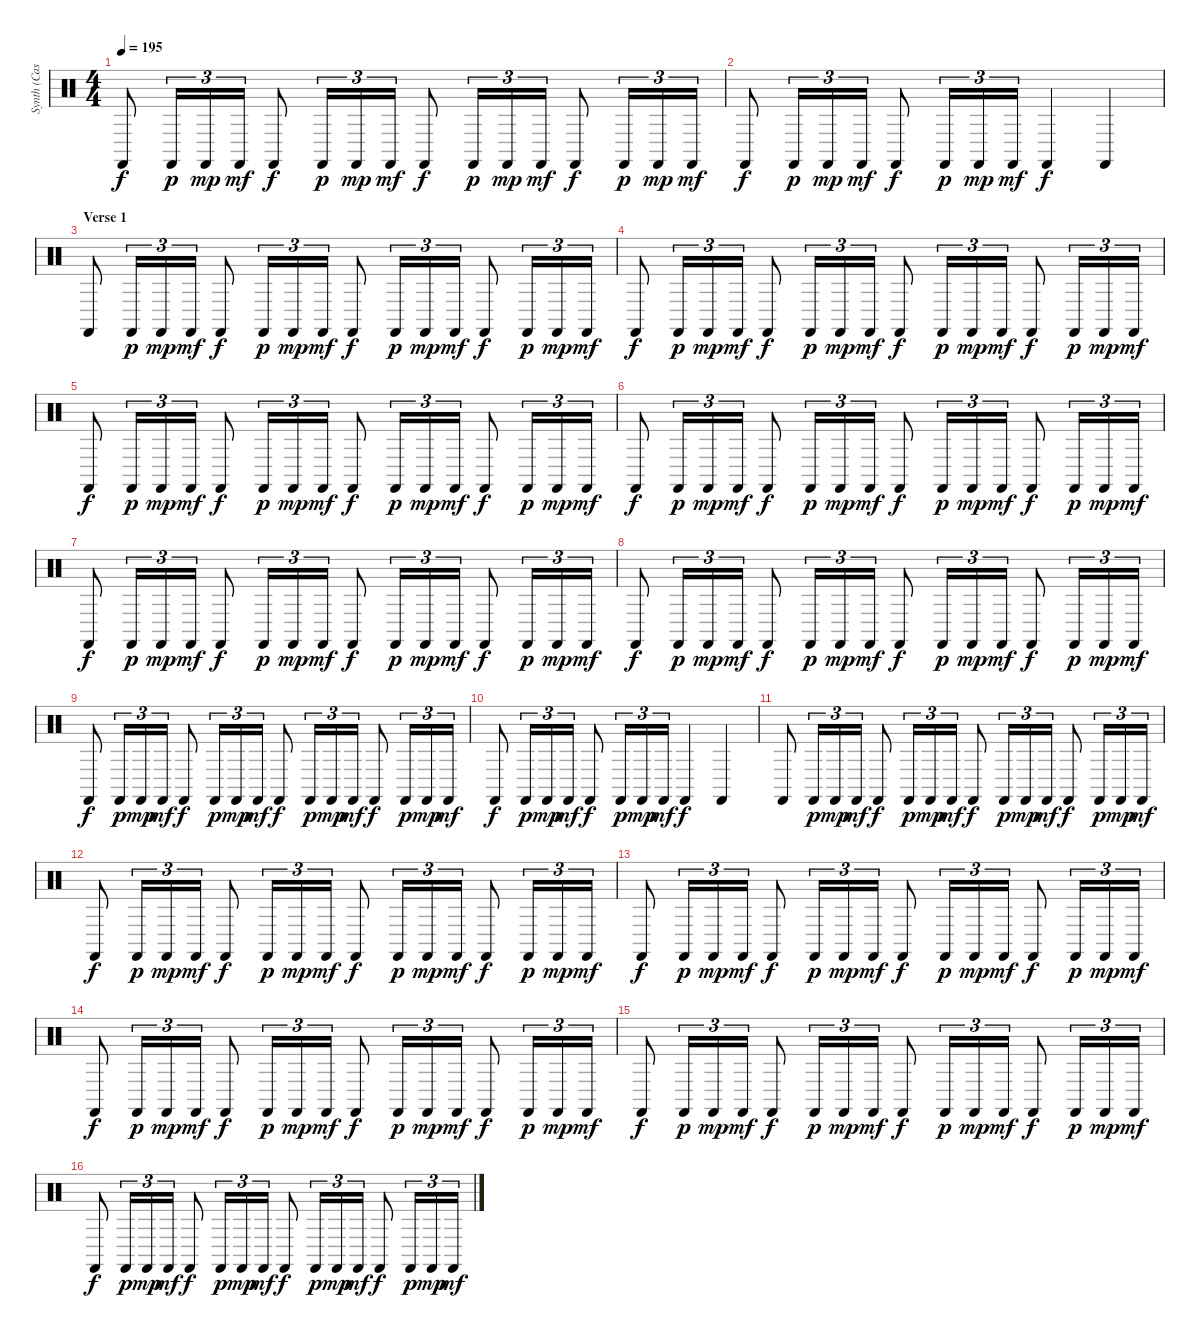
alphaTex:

\track ("Synth (Castinets)" "Synth (Cas") {instrument percussion}
\staff {score}
\articulation defaults
\ts (4 4)
\tempo 195
\clef neutral
\ks c "Castanets (hit)".8{dy f} "Castanets (hit)".16{tu (3 2) dy p} "Castanets (hit)".16{tu (3 2) dy mp} "Castanets (hit)".16{tu (3 2) dy mf} "Castanets (hit)".8{dy f} "Castanets (hit)".16{tu (3 2) dy p} "Castanets (hit)".16{tu (3 2) dy mp} "Castanets (hit)".16{tu (3 2) dy mf} "Castanets (hit)".8{dy f} "Castanets (hit)".16{tu (3 2) dy p} "Castanets (hit)".16{tu (3 2) dy mp} "Castanets (hit)".16{tu (3 2) dy mf} "Castanets (hit)".8{dy f} "Castanets (hit)".16{tu (3 2) dy p} "Castanets (hit)".16{tu (3 2) dy mp} "Castanets (hit)".16{tu (3 2) dy mf}
|
"Castanets (hit)".8{dy f} "Castanets (hit)".16{tu (3 2) dy p} "Castanets (hit)".16{tu (3 2) dy mp} "Castanets (hit)".16{tu (3 2) dy mf} "Castanets (hit)".8{dy f} "Castanets (hit)".16{tu (3 2) dy p} "Castanets (hit)".16{tu (3 2) dy mp} "Castanets (hit)".16{tu (3 2) dy mf} "Castanets (hit)".4{dy f} "Castanets (hit)".4 |
\section ("" "Verse 1")
"Castanets (hit)".8 "Castanets (hit)".16{tu (3 2) dy p} "Castanets (hit)".16{tu (3 2) dy mp} "Castanets (hit)".16{tu (3 2) dy mf} "Castanets (hit)".8{dy f} "Castanets (hit)".16{tu (3 2) dy p} "Castanets (hit)".16{tu (3 2) dy mp} "Castanets (hit)".16{tu (3 2) dy mf} "Castanets (hit)".8{dy f} "Castanets (hit)".16{tu (3 2) dy p} "Castanets (hit)".16{tu (3 2) dy mp} "Castanets (hit)".16{tu (3 2) dy mf} "Castanets (hit)".8{dy f} "Castanets (hit)".16{tu (3 2) dy p} "Castanets (hit)".16{tu (3 2) dy mp} "Castanets (hit)".16{tu (3 2) dy mf} |
"Castanets (hit)".8{dy f} "Castanets (hit)".16{tu (3 2) dy p} "Castanets (hit)".16{tu (3 2) dy mp} "Castanets (hit)".16{tu (3 2) dy mf} "Castanets (hit)".8{dy f} "Castanets (hit)".16{tu (3 2) dy p} "Castanets (hit)".16{tu (3 2) dy mp} "Castanets (hit)".16{tu (3 2) dy mf} "Castanets (hit)".8{dy f} "Castanets (hit)".16{tu (3 2) dy p} "Castanets (hit)".16{tu (3 2) dy mp} "Castanets (hit)".16{tu (3 2) dy mf} "Castanets (hit)".8{dy f} "Castanets (hit)".16{tu (3 2) dy p} "Castanets (hit)".16{tu (3 2) dy mp} "Castanets (hit)".16{tu (3 2) dy mf} |
"Castanets (hit)".8{dy f} "Castanets (hit)".16{tu (3 2) dy p} "Castanets (hit)".16{tu (3 2) dy mp} "Castanets (hit)".16{tu (3 2) dy mf} "Castanets (hit)".8{dy f} "Castanets (hit)".16{tu (3 2) dy p} "Castanets (hit)".16{tu (3 2) dy mp} "Castanets (hit)".16{tu (3 2) dy mf} "Castanets (hit)".8{dy f} "Castanets (hit)".16{tu (3 2) dy p} "Castanets (hit)".16{tu (3 2) dy mp} "Castanets (hit)".16{tu (3 2) dy mf} "Castanets (hit)".8{dy f} "Castanets (hit)".16{tu (3 2) dy p} "Castanets (hit)".16{tu (3 2) dy mp} "Castanets (hit)".16{tu (3 2) dy mf} |
"Castanets (hit)".8{dy f} "Castanets (hit)".16{tu (3 2) dy p} "Castanets (hit)".16{tu (3 2) dy mp} "Castanets (hit)".16{tu (3 2) dy mf} "Castanets (hit)".8{dy f} "Castanets (hit)".16{tu (3 2) dy p} "Castanets (hit)".16{tu (3 2) dy mp} "Castanets (hit)".16{tu (3 2) dy mf} "Castanets (hit)".8{dy f} "Castanets (hit)".16{tu (3 2) dy p} "Castanets (hit)".16{tu (3 2) dy mp} "Castanets (hit)".16{tu (3 2) dy mf} "Castanets (hit)".8{dy f} "Castanets (hit)".16{tu (3 2) dy p} "Castanets (hit)".16{tu (3 2) dy mp} "Castanets (hit)".16{tu (3 2) dy mf} |
"Castanets (hit)".8{dy f} "Castanets (hit)".16{tu (3 2) dy p} "Castanets (hit)".16{tu (3 2) dy mp} "Castanets (hit)".16{tu (3 2) dy mf} "Castanets (hit)".8{dy f} "Castanets (hit)".16{tu (3 2) dy p} "Castanets (hit)".16{tu (3 2) dy mp} "Castanets (hit)".16{tu (3 2) dy mf} "Castanets (hit)".8{dy f} "Castanets (hit)".16{tu (3 2) dy p} "Castanets (hit)".16{tu (3 2) dy mp} "Castanets (hit)".16{tu (3 2) dy mf} "Castanets (hit)".8{dy f} "Castanets (hit)".16{tu (3 2) dy p} "Castanets (hit)".16{tu (3 2) dy mp} "Castanets (hit)".16{tu (3 2) dy mf} |
"Castanets (hit)".8{dy f} "Castanets (hit)".16{tu (3 2) dy p} "Castanets (hit)".16{tu (3 2) dy mp} "Castanets (hit)".16{tu (3 2) dy mf} "Castanets (hit)".8{dy f} "Castanets (hit)".16{tu (3 2) dy p} "Castanets (hit)".16{tu (3 2) dy mp} "Castanets (hit)".16{tu (3 2) dy mf} "Castanets (hit)".8{dy f} "Castanets (hit)".16{tu (3 2) dy p} "Castanets (hit)".16{tu (3 2) dy mp} "Castanets (hit)".16{tu (3 2) dy mf} "Castanets (hit)".8{dy f} "Castanets (hit)".16{tu (3 2) dy p} "Castanets (hit)".16{tu (3 2) dy mp} "Castanets (hit)".16{tu (3 2) dy mf} |
"Castanets (hit)".8{dy f} "Castanets (hit)".16{tu (3 2) dy p} "Castanets (hit)".16{tu (3 2) dy mp} "Castanets (hit)".16{tu (3 2) dy mf} "Castanets (hit)".8{dy f} "Castanets (hit)".16{tu (3 2) dy p} "Castanets (hit)".16{tu (3 2) dy mp} "Castanets (hit)".16{tu (3 2) dy mf} "Castanets (hit)".8{dy f} "Castanets (hit)".16{tu (3 2) dy p} "Castanets (hit)".16{tu (3 2) dy mp} "Castanets (hit)".16{tu (3 2) dy mf} "Castanets (hit)".8{dy f} "Castanets (hit)".16{tu (3 2) dy p} "Castanets (hit)".16{tu (3 2) dy mp} "Castanets (hit)".16{tu (3 2) dy mf} |
"Castanets (hit)".8{dy f} "Castanets (hit)".16{tu (3 2) dy p} "Castanets (hit)".16{tu (3 2) dy mp} "Castanets (hit)".16{tu (3 2) dy mf} "Castanets (hit)".8{dy f} "Castanets (hit)".16{tu (3 2) dy p} "Castanets (hit)".16{tu (3 2) dy mp} "Castanets (hit)".16{tu (3 2) dy mf} "Castanets (hit)".4{dy f} "Castanets (hit)".4 |
"Castanets (hit)".8 "Castanets (hit)".16{tu (3 2) dy p} "Castanets (hit)".16{tu (3 2) dy mp} "Castanets (hit)".16{tu (3 2) dy mf} "Castanets (hit)".8{dy f} "Castanets (hit)".16{tu (3 2) dy p} "Castanets (hit)".16{tu (3 2) dy mp} "Castanets (hit)".16{tu (3 2) dy mf} "Castanets (hit)".8{dy f} "Castanets (hit)".16{tu (3 2) dy p} "Castanets (hit)".16{tu (3 2) dy mp} "Castanets (hit)".16{tu (3 2) dy mf} "Castanets (hit)".8{dy f} "Castanets (hit)".16{tu (3 2) dy p} "Castanets (hit)".16{tu (3 2) dy mp} "Castanets (hit)".16{tu (3 2) dy mf} |
"Castanets (hit)".8{dy f} "Castanets (hit)".16{tu (3 2) dy p} "Castanets (hit)".16{tu (3 2) dy mp} "Castanets (hit)".16{tu (3 2) dy mf} "Castanets (hit)".8{dy f} "Castanets (hit)".16{tu (3 2) dy p} "Castanets (hit)".16{tu (3 2) dy mp} "Castanets (hit)".16{tu (3 2) dy mf} "Castanets (hit)".8{dy f} "Castanets (hit)".16{tu (3 2) dy p} "Castanets (hit)".16{tu (3 2) dy mp} "Castanets (hit)".16{tu (3 2) dy mf} "Castanets (hit)".8{dy f} "Castanets (hit)".16{tu (3 2) dy p} "Castanets (hit)".16{tu (3 2) dy mp} "Castanets (hit)".16{tu (3 2) dy mf} |
"Castanets (hit)".8{dy f} "Castanets (hit)".16{tu (3 2) dy p} "Castanets (hit)".16{tu (3 2) dy mp} "Castanets (hit)".16{tu (3 2) dy mf} "Castanets (hit)".8{dy f} "Castanets (hit)".16{tu (3 2) dy p} "Castanets (hit)".16{tu (3 2) dy mp} "Castanets (hit)".16{tu (3 2) dy mf} "Castanets (hit)".8{dy f} "Castanets (hit)".16{tu (3 2) dy p} "Castanets (hit)".16{tu (3 2) dy mp} "Castanets (hit)".16{tu (3 2) dy mf} "Castanets (hit)".8{dy f} "Castanets (hit)".16{tu (3 2) dy p} "Castanets (hit)".16{tu (3 2) dy mp} "Castanets (hit)".16{tu (3 2) dy mf} |
"Castanets (hit)".8{dy f} "Castanets (hit)".16{tu (3 2) dy p} "Castanets (hit)".16{tu (3 2) dy mp} "Castanets (hit)".16{tu (3 2) dy mf} "Castanets (hit)".8{dy f} "Castanets (hit)".16{tu (3 2) dy p} "Castanets (hit)".16{tu (3 2) dy mp} "Castanets (hit)".16{tu (3 2) dy mf} "Castanets (hit)".8{dy f} "Castanets (hit)".16{tu (3 2) dy p} "Castanets (hit)".16{tu (3 2) dy mp} "Castanets (hit)".16{tu (3 2) dy mf} "Castanets (hit)".8{dy f} "Castanets (hit)".16{tu (3 2) dy p} "Castanets (hit)".16{tu (3 2) dy mp} "Castanets (hit)".16{tu (3 2) dy mf} |
"Castanets (hit)".8{dy f} "Castanets (hit)".16{tu (3 2) dy p} "Castanets (hit)".16{tu (3 2) dy mp} "Castanets (hit)".16{tu (3 2) dy mf} "Castanets (hit)".8{dy f} "Castanets (hit)".16{tu (3 2) dy p} "Castanets (hit)".16{tu (3 2) dy mp} "Castanets (hit)".16{tu (3 2) dy mf} "Castanets (hit)".8{dy f} "Castanets (hit)".16{tu (3 2) dy p} "Castanets (hit)".16{tu (3 2) dy mp} "Castanets (hit)".16{tu (3 2) dy mf} "Castanets (hit)".8{dy f} "Castanets (hit)".16{tu (3 2) dy p} "Castanets (hit)".16{tu (3 2) dy mp} "Castanets (hit)".16{tu (3 2) dy mf} |
"Castanets (hit)".8{dy f} "Castanets (hit)".16{tu (3 2) dy p} "Castanets (hit)".16{tu (3 2) dy mp} "Castanets (hit)".16{tu (3 2) dy mf} "Castanets (hit)".8{dy f} "Castanets (hit)".16{tu (3 2) dy p} "Castanets (hit)".16{tu (3 2) dy mp} "Castanets (hit)".16{tu (3 2) dy mf} "Castanets (hit)".8{dy f} "Castanets (hit)".16{tu (3 2) dy p} "Castanets (hit)".16{tu (3 2) dy mp} "Castanets (hit)".16{tu (3 2) dy mf} "Castanets (hit)".8{dy f} "Castanets (hit)".16{tu (3 2) dy p} "Castanets (hit)".16{tu (3 2) dy mp} "Castanets (hit)".16{tu (3 2) dy mf}
